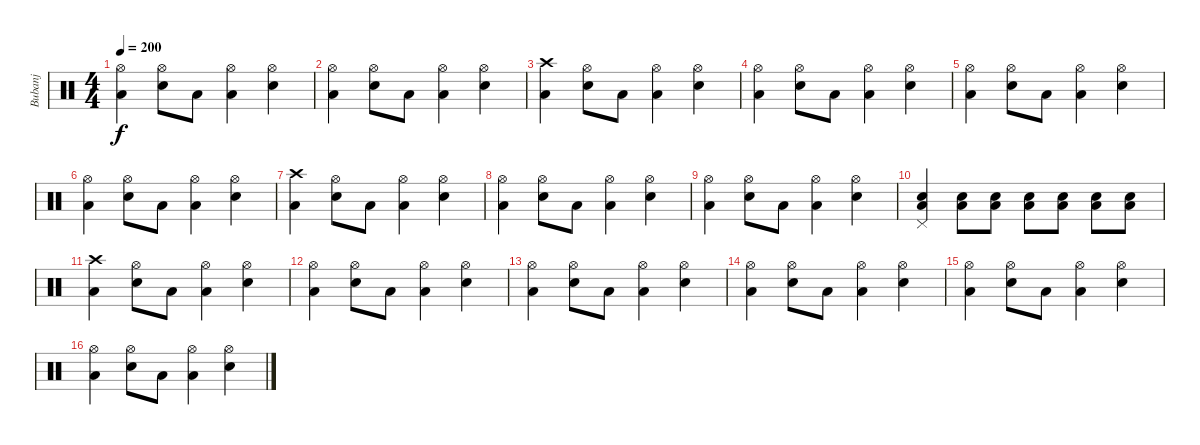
\track ("Bubanj" "Bubanj") {instrument percussion}
\staff {score}
\articulation defaults
\ts (4 4)
\tempo 200
\clef neutral
\ks c
("Hi-Hat (open)" "Low Tom (hit)").4{dy f} ("Hi-Hat (open)" "Snare (hit) 2").8 "Low Tom (hit)".8 ("Hi-Hat (open)" "Low Tom (hit)").4 ("Hi-Hat (open)" "Snare (hit) 2").4 |
("Hi-Hat (open)" "Low Tom (hit)").4 ("Hi-Hat (open)" "Snare (hit) 2").8 "Low Tom (hit)".8 ("Hi-Hat (open)" "Low Tom (hit)").4 ("Hi-Hat (open)" "Snare (hit) 2").4 |
("Crash high (hit)" "Low Tom (hit)").4 ("Hi-Hat (open)" "Snare (hit) 2").8 "Low Tom (hit)".8 ("Hi-Hat (open)" "Low Tom (hit)").4 ("Hi-Hat (open)" "Snare (hit) 2").4 |
("Hi-Hat (open)" "Low Tom (hit)").4 ("Hi-Hat (open)" "Snare (hit) 2").8 "Low Tom (hit)".8 ("Hi-Hat (open)" "Low Tom (hit)").4 ("Hi-Hat (open)" "Snare (hit) 2").4 |
("Hi-Hat (open)" "Low Tom (hit)").4 ("Hi-Hat (open)" "Snare (hit) 2").8 "Low Tom (hit)".8 ("Hi-Hat (open)" "Low Tom (hit)").4 ("Hi-Hat (open)" "Snare (hit) 2").4 |
("Hi-Hat (open)" "Low Tom (hit)").4 ("Hi-Hat (open)" "Snare (hit) 2").8 "Low Tom (hit)".8 ("Hi-Hat (open)" "Low Tom (hit)").4 ("Hi-Hat (open)" "Snare (hit) 2").4 |
("Crash high (hit)" "Low Tom (hit)").4 ("Hi-Hat (open)" "Snare (hit) 2").8 "Low Tom (hit)".8 ("Hi-Hat (open)" "Low Tom (hit)").4 ("Hi-Hat (open)" "Snare (hit) 2").4 |
("Hi-Hat (open)" "Low Tom (hit)").4 ("Hi-Hat (open)" "Snare (hit) 2").8 "Low Tom (hit)".8 ("Hi-Hat (open)" "Low Tom (hit)").4 ("Hi-Hat (open)" "Snare (hit) 2").4 |
("Hi-Hat (open)" "Low Tom (hit)").4 ("Hi-Hat (open)" "Snare (hit) 2").8 "Low Tom (hit)".8 ("Hi-Hat (open)" "Low Tom (hit)").4 ("Hi-Hat (open)" "Snare (hit) 2").4 |
("Pedal Hi-Hat (hit)" "Snare (hit) 2" "Low Tom (hit)").4 ("Snare (hit) 2" "Low Tom (hit)").8 ("Snare (hit) 2" "Low Tom (hit)").8 ("Snare (hit) 2" "Low Tom (hit)").8 ("Snare (hit) 2" "Low Tom (hit)").8 ("Snare (hit) 2" "Low Tom (hit)").8 ("Snare (hit) 2" "Low Tom (hit)").8 |
("Crash high (hit)" "Low Tom (hit)").4 ("Hi-Hat (open)" "Snare (hit) 2").8 "Low Tom (hit)".8 ("Hi-Hat (open)" "Low Tom (hit)").4 ("Hi-Hat (open)" "Snare (hit) 2").4 |
("Hi-Hat (open)" "Low Tom (hit)").4 ("Hi-Hat (open)" "Snare (hit) 2").8 "Low Tom (hit)".8 ("Hi-Hat (open)" "Low Tom (hit)").4 ("Hi-Hat (open)" "Snare (hit) 2").4 |
("Hi-Hat (open)" "Low Tom (hit)").4 ("Hi-Hat (open)" "Snare (hit) 2").8 "Low Tom (hit)".8 ("Hi-Hat (open)" "Low Tom (hit)").4 ("Hi-Hat (open)" "Snare (hit) 2").4 |
("Hi-Hat (open)" "Low Tom (hit)").4 ("Hi-Hat (open)" "Snare (hit) 2").8 "Low Tom (hit)".8 ("Hi-Hat (open)" "Low Tom (hit)").4 ("Hi-Hat (open)" "Snare (hit) 2").4 |
("Hi-Hat (open)" "Low Tom (hit)").4 ("Hi-Hat (open)" "Snare (hit) 2").8 "Low Tom (hit)".8 ("Hi-Hat (open)" "Low Tom (hit)").4 ("Hi-Hat (open)" "Snare (hit) 2").4 |
("Hi-Hat (open)" "Low Tom (hit)").4 ("Hi-Hat (open)" "Snare (hit) 2").8 "Low Tom (hit)".8 ("Hi-Hat (open)" "Low Tom (hit)").4 ("Hi-Hat (open)" "Snare (hit) 2").4
